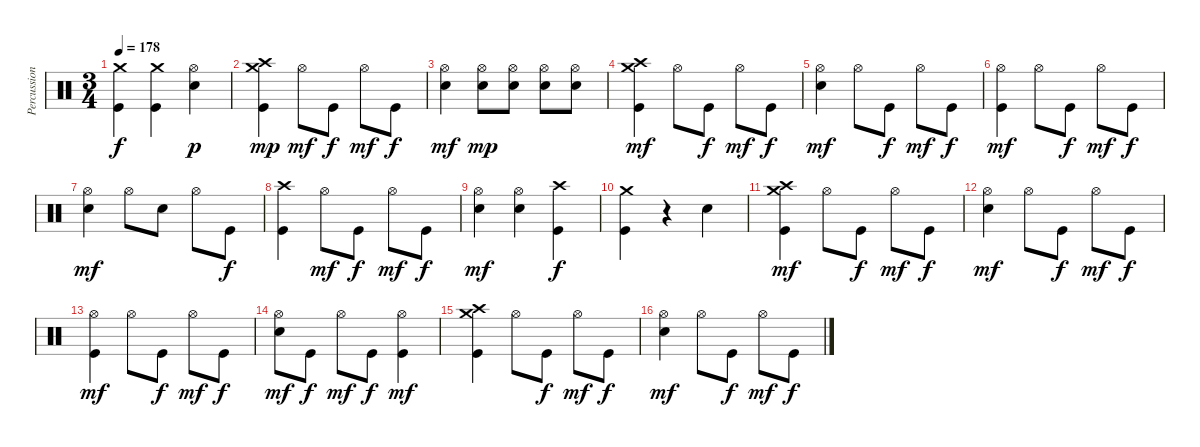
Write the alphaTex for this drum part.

\track ("Percussions" "Percussion") {instrument percussion}
\staff {score}
\articulation defaults
\ts (3 4)
\tempo 178
\clef neutral
\ks c
("Kick (hit)" "Crash medium (hit)").4{dy f} ("Kick (hit)" "Crash medium (hit)").4 ("Electric Snare (hit)" "Hi-Hat (open)").4{dy p} |
("Kick (hit)" "Crash high (hit)" "Crash medium (hit)").4{dy mp} "Hi-Hat (open)".8{dy mf} "Kick (hit)".8{dy f} "Hi-Hat (open)".8{dy mf} "Kick (hit)".8{dy f} |
("Electric Snare (hit)" "Hi-Hat (open)").4{dy mf} ("Electric Snare (hit)" "Hi-Hat (open)").8{dy mp} ("Electric Snare (hit)" "Hi-Hat (open)").8 ("Electric Snare (hit)" "Hi-Hat (open)").8 ("Electric Snare (hit)" "Hi-Hat (open)").8 |
("Kick (hit)" "Crash high (hit)" "Crash medium (hit)").4{dy mf} "Hi-Hat (open)".8 "Kick (hit)".8{dy f} "Hi-Hat (open)".8{dy mf} "Kick (hit)".8{dy f} |
("Electric Snare (hit)" "Hi-Hat (open)").4{dy mf} "Hi-Hat (open)".8 "Kick (hit)".8{dy f} "Hi-Hat (open)".8{dy mf} "Kick (hit)".8{dy f} |
("Kick (hit)" "Hi-Hat (open)").4{dy mf} "Hi-Hat (open)".8 "Kick (hit)".8{dy f} "Hi-Hat (open)".8{dy mf} "Kick (hit)".8{dy f} |
("Electric Snare (hit)" "Hi-Hat (open)").4{dy mf} "Hi-Hat (open)".8 "Electric Snare (hit)".8 "Hi-Hat (open)".8 "Kick (hit)".8{dy f} |
("Kick (hit)" "Crash high (hit)").4 "Hi-Hat (open)".8{dy mf} "Kick (hit)".8{dy f} "Hi-Hat (open)".8{dy mf} "Kick (hit)".8{dy f} |
("Electric Snare (hit)" "Hi-Hat (open)").4{dy mf} ("Electric Snare (hit)" "Hi-Hat (open)").4 ("Kick (hit)" "Crash high (hit)").4{dy f} |
("Kick (hit)" "Crash medium (hit)").4 r.4 "Electric Snare (hit)".4 |
("Kick (hit)" "Crash high (hit)" "Crash medium (hit)").4{dy mf} "Hi-Hat (open)".8 "Kick (hit)".8{dy f} "Hi-Hat (open)".8{dy mf} "Kick (hit)".8{dy f} |
("Electric Snare (hit)" "Hi-Hat (open)").4{dy mf} "Hi-Hat (open)".8 "Kick (hit)".8{dy f} "Hi-Hat (open)".8{dy mf} "Kick (hit)".8{dy f} |
("Kick (hit)" "Hi-Hat (open)").4{dy mf} "Hi-Hat (open)".8 "Kick (hit)".8{dy f} "Hi-Hat (open)".8{dy mf} "Kick (hit)".8{dy f} |
("Electric Snare (hit)" "Hi-Hat (open)").8{dy mf} "Kick (hit)".8{dy f} "Hi-Hat (open)".8{dy mf} "Kick (hit)".8{dy f} ("Kick (hit)" "Hi-Hat (open)").4{dy mf} |
("Kick (hit)" "Crash high (hit)" "Crash medium (hit)").4 "Hi-Hat (open)".8 "Kick (hit)".8{dy f} "Hi-Hat (open)".8{dy mf} "Kick (hit)".8{dy f} |
("Electric Snare (hit)" "Hi-Hat (open)").4{dy mf} "Hi-Hat (open)".8 "Kick (hit)".8{dy f} "Hi-Hat (open)".8{dy mf} "Kick (hit)".8{dy f}
